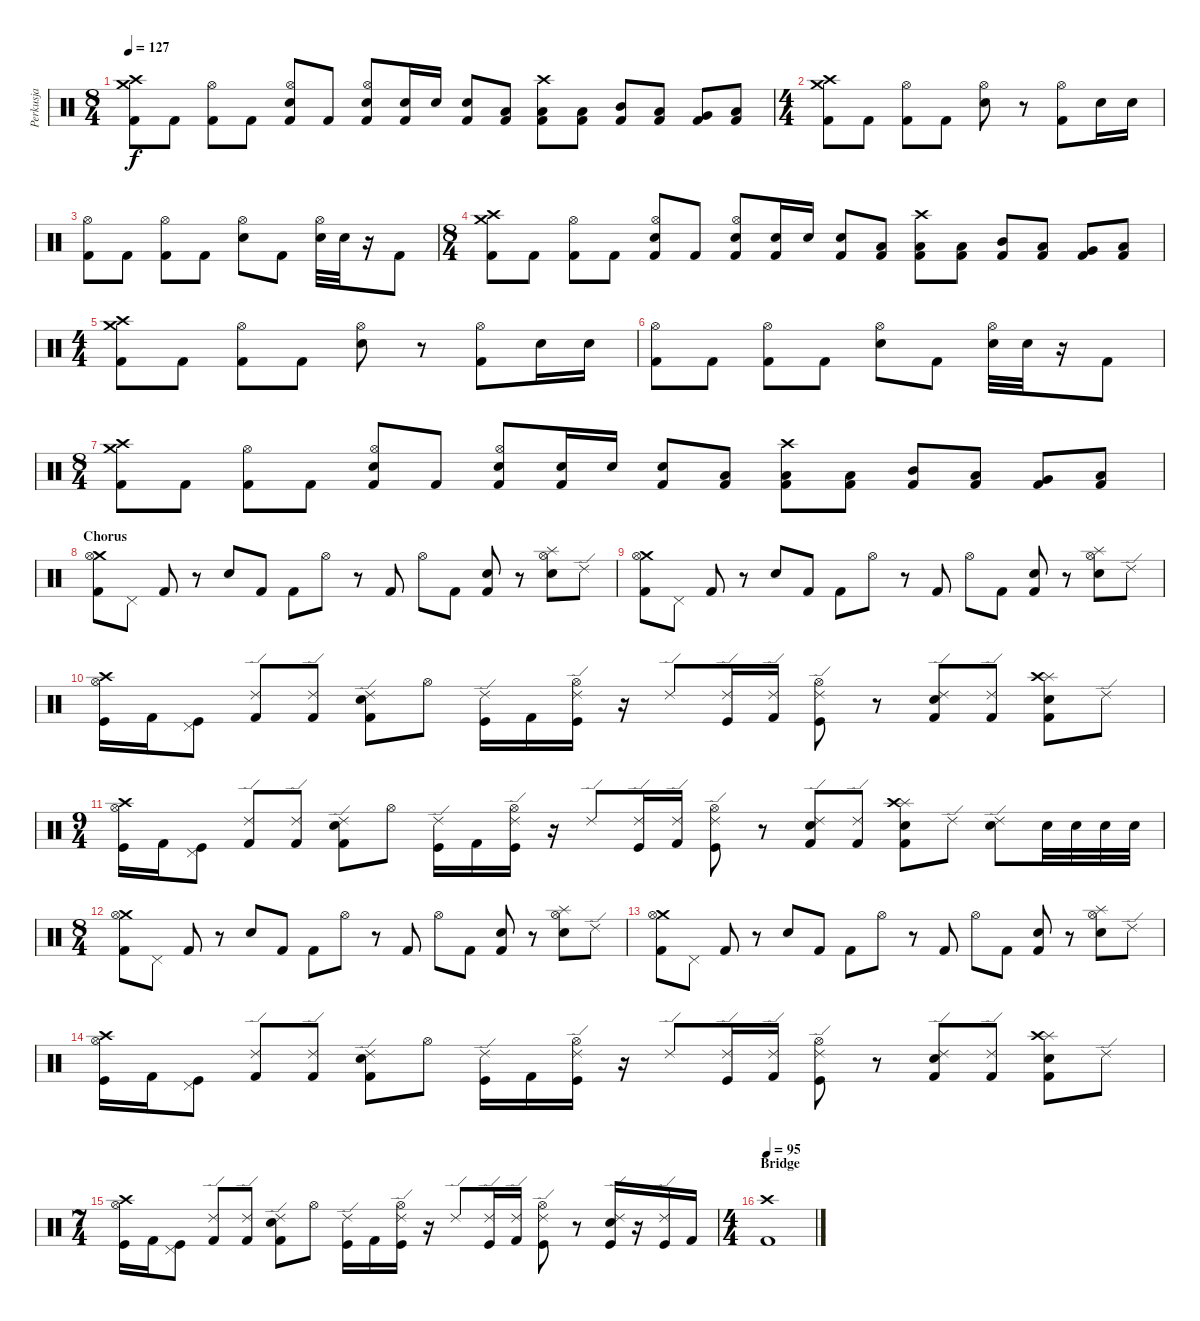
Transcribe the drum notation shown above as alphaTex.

\track ("Perkusja" "Perkusja") {instrument percussion}
\staff {score}
\articulation defaults
\ts (8 4)
\tempo 127
\clef neutral
\ks c
("Crash medium (hit)" "Crash high (hit)" "Kick (hit) 2").8{dy f} "Kick (hit) 2".8 ("Hi-Hat (open)" "Kick (hit) 2").8 "Kick (hit) 2".8 ("Hi-Hat (open)" "Electric Snare (hit)" "Kick (hit) 2").8 "Kick (hit) 2".8 ("Hi-Hat (open)" "Electric Snare (hit)" "Kick (hit) 2").8 ("Electric Snare (hit)" "Kick (hit) 2").16 "Electric Snare (hit)".16 ("Electric Snare (hit)" "Kick (hit) 2").8 ("Low Floor Tom (hit)" "Kick (hit) 2").8 ("Crash high (hit)" "Low Floor Tom (hit)" "Kick (hit) 2").8 ("Low Floor Tom (hit)" "Kick (hit) 2").8 ("Mid Tom (hit)" "Kick (hit) 2").8 ("Low Tom (hit)" "Kick (hit) 2").8 ("Very Low Tom (hit)" "Kick (hit) 2").8 ("Low Floor Tom (hit)" "Kick (hit) 2").8 |
\ts (4 4)
("Crash medium (hit)" "Crash high (hit)" "Kick (hit) 2").8 "Kick (hit) 2".8 ("Hi-Hat (open)" "Kick (hit) 2").8 "Kick (hit) 2".8 ("Hi-Hat (open)" "Electric Snare (hit)").8 r.8 ("Hi-Hat (open)" "Kick (hit) 2").8 "Electric Snare (hit)".16 "Electric Snare (hit)".16 |
("Hi-Hat (open)" "Kick (hit) 2").8 "Kick (hit) 2".8 ("Hi-Hat (open)" "Kick (hit) 2").8 "Kick (hit) 2".8 ("Hi-Hat (open)" "Electric Snare (hit)").8 "Kick (hit) 2".8 ("Hi-Hat (open)" "Electric Snare (hit)").32 "Electric Snare (hit)".32 r.16 "Kick (hit) 2".8 |
\ts (8 4)
("Crash medium (hit)" "Crash high (hit)" "Kick (hit) 2").8 "Kick (hit) 2".8 ("Hi-Hat (open)" "Kick (hit) 2").8 "Kick (hit) 2".8 ("Hi-Hat (open)" "Electric Snare (hit)" "Kick (hit) 2").8 "Kick (hit) 2".8 ("Hi-Hat (open)" "Electric Snare (hit)" "Kick (hit) 2").8 ("Electric Snare (hit)" "Kick (hit) 2").16 "Electric Snare (hit)".16 ("Electric Snare (hit)" "Kick (hit) 2").8 ("Low Floor Tom (hit)" "Kick (hit) 2").8 ("Crash high (hit)" "Low Floor Tom (hit)" "Kick (hit) 2").8 ("Low Floor Tom (hit)" "Kick (hit) 2").8 ("Mid Tom (hit)" "Kick (hit) 2").8 ("Low Tom (hit)" "Kick (hit) 2").8 ("Very Low Tom (hit)" "Kick (hit) 2").8 ("Low Floor Tom (hit)" "Kick (hit) 2").8 |
\ts (4 4)
("Crash medium (hit)" "Crash high (hit)" "Kick (hit) 2").8 "Kick (hit) 2".8 ("Hi-Hat (open)" "Kick (hit) 2").8 "Kick (hit) 2".8 ("Hi-Hat (open)" "Electric Snare (hit)").8 r.8 ("Hi-Hat (open)" "Kick (hit) 2").8 "Electric Snare (hit)".16 "Electric Snare (hit)".16 |
("Hi-Hat (open)" "Kick (hit) 2").8 "Kick (hit) 2".8 ("Hi-Hat (open)" "Kick (hit) 2").8 "Kick (hit) 2".8 ("Hi-Hat (open)" "Electric Snare (hit)").8 "Kick (hit) 2".8 ("Hi-Hat (open)" "Electric Snare (hit)").32 "Electric Snare (hit)".32 r.16 "Kick (hit) 2".8 |
\ts (8 4)
("Crash medium (hit)" "Crash high (hit)" "Kick (hit) 2").8 "Kick (hit) 2".8 ("Hi-Hat (open)" "Kick (hit) 2").8 "Kick (hit) 2".8 ("Hi-Hat (open)" "Electric Snare (hit)" "Kick (hit) 2").8 "Kick (hit) 2".8 ("Hi-Hat (open)" "Electric Snare (hit)" "Kick (hit) 2").8 ("Electric Snare (hit)" "Kick (hit) 2").16 "Electric Snare (hit)".16 ("Electric Snare (hit)" "Kick (hit) 2").8 ("Low Floor Tom (hit)" "Kick (hit) 2").8 ("Crash high (hit)" "Low Floor Tom (hit)" "Kick (hit) 2").8 ("Low Floor Tom (hit)" "Kick (hit) 2").8 ("Mid Tom (hit)" "Kick (hit) 2").8 ("Low Tom (hit)" "Kick (hit) 2").8 ("Very Low Tom (hit)" "Kick (hit) 2").8 ("Low Floor Tom (hit)" "Kick (hit) 2").8 |
\section ("" "Chorus")
("Crash medium (hit)" "Hi-Hat (open)" "Kick (hit) 2").8 "Pedal Hi-Hat (hit)".8 "Kick (hit) 2".8 r.8 "Electric Snare (hit)".8 "Kick (hit) 2".8 "Kick (hit) 2".8 "Hi-Hat (open)".8 r.8 "Kick (hit) 2".8 "Hi-Hat (open)".8 "Kick (hit) 2".8 ("Electric Snare (hit)" "Kick (hit) 2").8 r.8 ("Splash (hit)" "Hi-Hat (open)" "Electric Snare (hit)").8 "Ride (edge) 2".8 |
("Crash medium (hit)" "Hi-Hat (open)" "Kick (hit) 2").8 "Pedal Hi-Hat (hit)".8 "Kick (hit) 2".8 r.8 "Electric Snare (hit)".8 "Kick (hit) 2".8 "Kick (hit) 2".8 "Hi-Hat (open)".8 r.8 "Kick (hit) 2".8 "Hi-Hat (open)".8 "Kick (hit) 2".8 ("Electric Snare (hit)" "Kick (hit) 2").8 r.8 ("Splash (hit)" "Hi-Hat (open)" "Electric Snare (hit)").8 "Ride (edge) 2".8 |
("Crash high (hit)" "Hi-Hat (open)" "Kick (hit)").16 "Kick (hit) 2".16 ("Pedal Hi-Hat (hit)" "Kick (hit)").8 ("Ride (edge) 2" "Kick (hit) 2").8 ("Ride (edge) 2" "Kick (hit) 2").8 ("Ride (edge) 2" "Electric Snare (hit)" "Kick (hit) 2").8 "Hi-Hat (open)".8 ("Ride (edge) 2" "Kick (hit)").16 "Kick (hit) 2".16 ("Ride (edge) 2" "Hi-Hat (open)" "Kick (hit)").16 r.16 "Ride (edge) 2".8 ("Ride (edge) 2" "Kick (hit)").16 ("Ride (edge) 2" "Kick (hit) 2").16 ("Ride (edge) 2" "Hi-Hat (open)" "Kick (hit)").8 r.8 ("Ride (edge) 2" "Electric Snare (hit)" "Kick (hit) 2").8 ("Ride (edge) 2" "Kick (hit) 2").8 ("Splash (hit)" "Crash high (hit)" "Electric Snare (hit)" "Kick (hit) 2").8 "Ride (edge) 2".8 |
\ts (9 4)
("Crash high (hit)" "Hi-Hat (open)" "Kick (hit)").16 "Kick (hit) 2".16 ("Pedal Hi-Hat (hit)" "Kick (hit)").8 ("Ride (edge) 2" "Kick (hit) 2").8 ("Ride (edge) 2" "Kick (hit) 2").8 ("Ride (edge) 2" "Electric Snare (hit)" "Kick (hit) 2").8 "Hi-Hat (open)".8 ("Ride (edge) 2" "Kick (hit)").16 "Kick (hit) 2".16 ("Ride (edge) 2" "Hi-Hat (open)" "Kick (hit)").16 r.16 "Ride (edge) 2".8 ("Ride (edge) 2" "Kick (hit)").16 ("Ride (edge) 2" "Kick (hit) 2").16 ("Ride (edge) 2" "Hi-Hat (open)" "Kick (hit)").8 r.8 ("Ride (edge) 2" "Electric Snare (hit)" "Kick (hit) 2").8 ("Ride (edge) 2" "Kick (hit) 2").8 ("Splash (hit)" "Crash high (hit)" "Electric Snare (hit)" "Kick (hit) 2").8 "Ride (edge) 2".8 ("Ride (edge) 2" "Electric Snare (hit)").8 "Electric Snare (hit)".32 "Electric Snare (hit)".32 "Electric Snare (hit)".32 "Electric Snare (hit)".32 |
\ts (8 4)
("Crash medium (hit)" "Hi-Hat (open)" "Kick (hit) 2").8 "Pedal Hi-Hat (hit)".8 "Kick (hit) 2".8 r.8 "Electric Snare (hit)".8 "Kick (hit) 2".8 "Kick (hit) 2".8 "Hi-Hat (open)".8 r.8 "Kick (hit) 2".8 "Hi-Hat (open)".8 "Kick (hit) 2".8 ("Electric Snare (hit)" "Kick (hit) 2").8 r.8 ("Splash (hit)" "Hi-Hat (open)" "Electric Snare (hit)").8 "Ride (edge) 2".8 |
("Crash medium (hit)" "Hi-Hat (open)" "Kick (hit) 2").8 "Pedal Hi-Hat (hit)".8 "Kick (hit) 2".8 r.8 "Electric Snare (hit)".8 "Kick (hit) 2".8 "Kick (hit) 2".8 "Hi-Hat (open)".8 r.8 "Kick (hit) 2".8 "Hi-Hat (open)".8 "Kick (hit) 2".8 ("Electric Snare (hit)" "Kick (hit) 2").8 r.8 ("Splash (hit)" "Hi-Hat (open)" "Electric Snare (hit)").8 "Ride (edge) 2".8 |
("Crash high (hit)" "Hi-Hat (open)" "Kick (hit)").16 "Kick (hit) 2".16 ("Pedal Hi-Hat (hit)" "Kick (hit)").8 ("Ride (edge) 2" "Kick (hit) 2").8 ("Ride (edge) 2" "Kick (hit) 2").8 ("Ride (edge) 2" "Electric Snare (hit)" "Kick (hit) 2").8 "Hi-Hat (open)".8 ("Ride (edge) 2" "Kick (hit)").16 "Kick (hit) 2".16 ("Ride (edge) 2" "Hi-Hat (open)" "Kick (hit)").16 r.16 "Ride (edge) 2".8 ("Ride (edge) 2" "Kick (hit)").16 ("Ride (edge) 2" "Kick (hit) 2").16 ("Ride (edge) 2" "Hi-Hat (open)" "Kick (hit)").8 r.8 ("Ride (edge) 2" "Electric Snare (hit)" "Kick (hit) 2").8 ("Ride (edge) 2" "Kick (hit) 2").8 ("Splash (hit)" "Crash high (hit)" "Electric Snare (hit)" "Kick (hit) 2").8 "Ride (edge) 2".8 |
\ts (7 4)
("Crash high (hit)" "Hi-Hat (open)" "Kick (hit)").16 "Kick (hit) 2".16 ("Pedal Hi-Hat (hit)" "Kick (hit)").8 ("Ride (edge) 2" "Kick (hit) 2").8 ("Ride (edge) 2" "Kick (hit) 2").8 ("Ride (edge) 2" "Electric Snare (hit)" "Kick (hit) 2").8 "Hi-Hat (open)".8 ("Ride (edge) 2" "Kick (hit)").16 "Kick (hit) 2".16 ("Ride (edge) 2" "Hi-Hat (open)" "Kick (hit)").16 r.16 "Ride (edge) 2".8 ("Ride (edge) 2" "Kick (hit)").16 ("Ride (edge) 2" "Kick (hit) 2").16 ("Ride (edge) 2" "Hi-Hat (open)" "Kick (hit)").8 r.8 ("Ride (edge) 2" "Electric Snare (hit)" "Kick (hit)").16 r.16 ("Ride (edge) 2" "Kick (hit)").16 "Kick (hit) 2".16 |
\ts (4 4)
\section ("" "Bridge")
\tempo 95
("Crash high (hit)" "Kick (hit) 2").1
